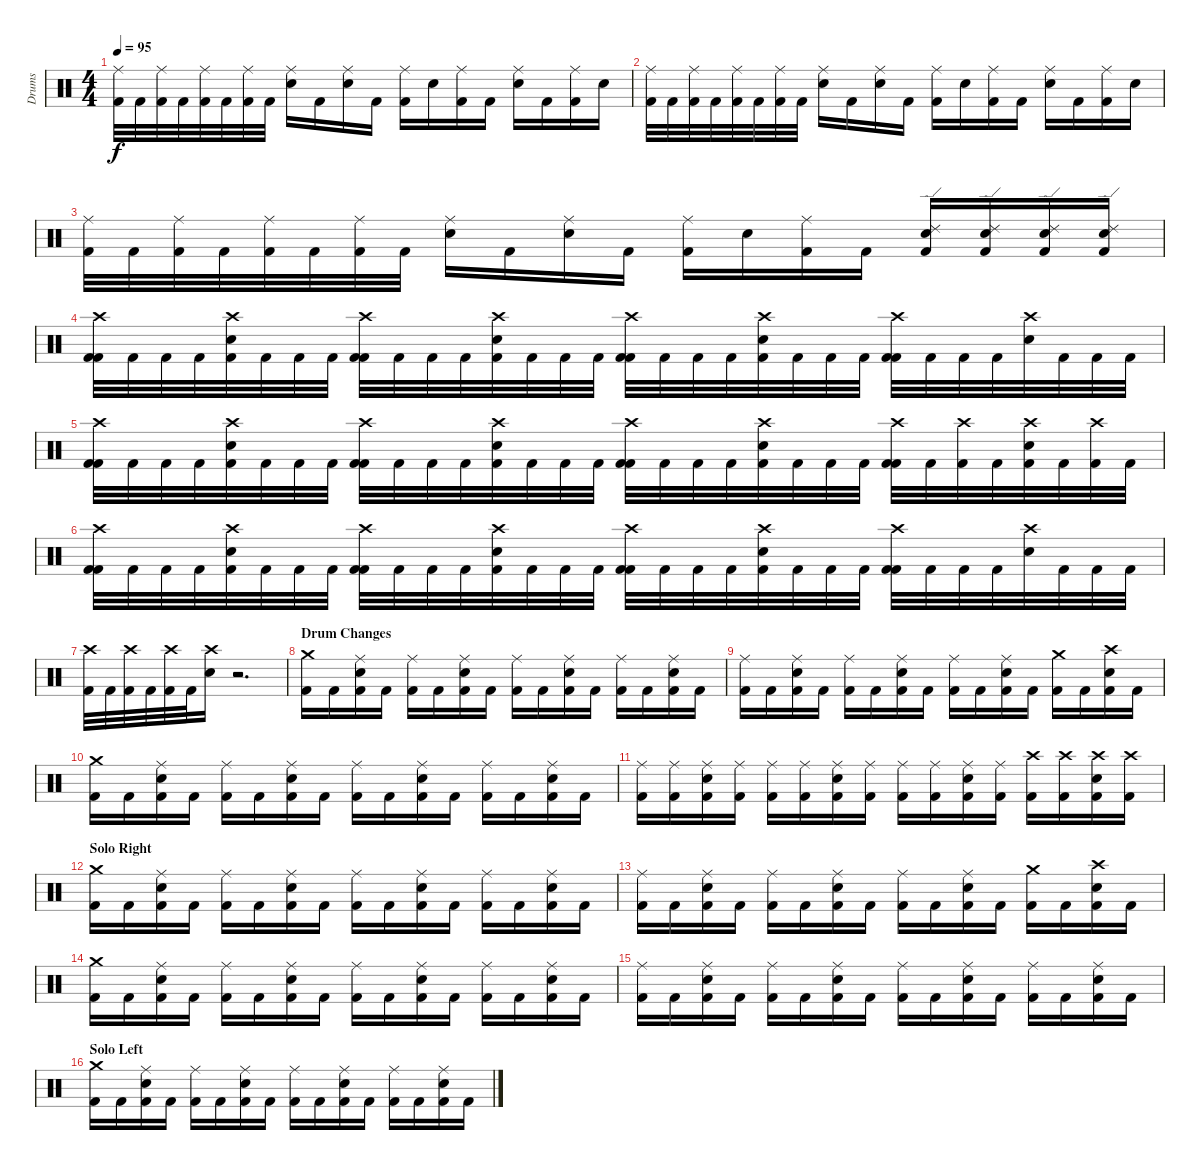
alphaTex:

\track ("Drums" "Drums") {instrument percussion}
\staff {score}
\articulation defaults
\ts (4 4)
\tempo 95
\clef neutral
\ks c
("Ride (middle)" "Kick (hit) 2").32{dy f balance 8} "Kick (hit) 2".32 ("Ride (middle)" "Kick (hit) 2").32 "Kick (hit) 2".32 ("Ride (middle)" "Kick (hit) 2").32 "Kick (hit) 2".32 ("Ride (middle)" "Kick (hit) 2").32 "Kick (hit) 2".32 ("Ride (middle)" "Electric Snare (hit)").16 "Kick (hit) 2".16 ("Ride (middle)" "Electric Snare (hit)").16 "Kick (hit) 2".16 ("Ride (middle)" "Kick (hit) 2").16 "Electric Snare (hit)".16 ("Ride (middle)" "Kick (hit) 2").16 "Kick (hit) 2".16 ("Ride (middle)" "Electric Snare (hit)").16 "Kick (hit) 2".16 ("Ride (middle)" "Kick (hit) 2").16 "Electric Snare (hit)".16 |
("Ride (middle)" "Kick (hit) 2").32{balance 8} "Kick (hit) 2".32 ("Ride (middle)" "Kick (hit) 2").32 "Kick (hit) 2".32 ("Ride (middle)" "Kick (hit) 2").32 "Kick (hit) 2".32 ("Ride (middle)" "Kick (hit) 2").32 "Kick (hit) 2".32 ("Ride (middle)" "Electric Snare (hit)").16 "Kick (hit) 2".16 ("Ride (middle)" "Electric Snare (hit)").16 "Kick (hit) 2".16 ("Ride (middle)" "Kick (hit) 2").16 "Electric Snare (hit)".16 ("Ride (middle)" "Kick (hit) 2").16 "Kick (hit) 2".16 ("Ride (middle)" "Electric Snare (hit)").16 "Kick (hit) 2".16 ("Ride (middle)" "Kick (hit) 2").16 "Electric Snare (hit)".16 |
("Ride (middle)" "Kick (hit) 2").32{balance 8} "Kick (hit) 2".32 ("Ride (middle)" "Kick (hit) 2").32 "Kick (hit) 2".32 ("Ride (middle)" "Kick (hit) 2").32 "Kick (hit) 2".32 ("Ride (middle)" "Kick (hit) 2").32 "Kick (hit) 2".32 ("Ride (middle)" "Electric Snare (hit)").16 "Kick (hit) 2".16 ("Ride (middle)" "Electric Snare (hit)").16 "Kick (hit) 2".16 ("Ride (middle)" "Kick (hit) 2").16 "Electric Snare (hit)".16 ("Ride (middle)" "Kick (hit) 2").16 "Kick (hit) 2".16 ("Ride (edge) 2" "Electric Snare (hit)" "Kick (hit) 2").16 ("Ride (edge) 2" "Electric Snare (hit)" "Kick (hit) 2").16 ("Ride (edge) 2" "Electric Snare (hit)" "Kick (hit) 2").16 ("Ride (edge) 2" "Electric Snare (hit)" "Kick (hit) 2").16 |
("Crash high (hit)" "Kick (hit) 2" "Kick (hit) 2").32{balance 8} "Kick (hit) 2".32 "Kick (hit) 2".32 "Kick (hit) 2".32 ("Crash high (hit)" "Electric Snare (hit)" "Kick (hit) 2").32 "Kick (hit) 2".32 "Kick (hit) 2".32 "Kick (hit) 2".32 ("Crash high (hit)" "Kick (hit) 2" "Kick (hit) 2").32 "Kick (hit) 2".32 "Kick (hit) 2".32 "Kick (hit) 2".32 ("Crash high (hit)" "Electric Snare (hit)" "Kick (hit) 2").32 "Kick (hit) 2".32 "Kick (hit) 2".32 "Kick (hit) 2".32 ("Crash high (hit)" "Kick (hit) 2" "Kick (hit) 2").32 "Kick (hit) 2".32 "Kick (hit) 2".32 "Kick (hit) 2".32 ("Crash high (hit)" "Electric Snare (hit)" "Kick (hit) 2").32 "Kick (hit) 2".32 "Kick (hit) 2".32 "Kick (hit) 2".32 ("Crash high (hit)" "Kick (hit) 2" "Kick (hit) 2").32 "Kick (hit) 2".32 "Kick (hit) 2".32 "Kick (hit) 2".32 ("Crash high (hit)" "Electric Snare (hit)").32 "Kick (hit) 2".32 "Kick (hit) 2".32 "Kick (hit) 2".32 |
("Crash high (hit)" "Kick (hit) 2" "Kick (hit) 2").32{balance 8} "Kick (hit) 2".32 "Kick (hit) 2".32 "Kick (hit) 2".32 ("Crash high (hit)" "Electric Snare (hit)" "Kick (hit) 2").32 "Kick (hit) 2".32 "Kick (hit) 2".32 "Kick (hit) 2".32 ("Crash high (hit)" "Kick (hit) 2" "Kick (hit) 2").32 "Kick (hit) 2".32 "Kick (hit) 2".32 "Kick (hit) 2".32 ("Crash high (hit)" "Electric Snare (hit)" "Kick (hit) 2").32 "Kick (hit) 2".32 "Kick (hit) 2".32 "Kick (hit) 2".32 ("Crash high (hit)" "Kick (hit) 2" "Kick (hit) 2").32 "Kick (hit) 2".32 "Kick (hit) 2".32 "Kick (hit) 2".32 ("Crash high (hit)" "Electric Snare (hit)" "Kick (hit) 2").32 "Kick (hit) 2".32 "Kick (hit) 2".32 "Kick (hit) 2".32 ("Crash high (hit)" "Kick (hit) 2" "Kick (hit) 2").32 "Kick (hit) 2".32 ("Crash high (hit)" "Kick (hit) 2").32 "Kick (hit) 2".32 ("Crash high (hit)" "Electric Snare (hit)" "Kick (hit) 2").32 "Kick (hit) 2".32 ("Crash high (hit)" "Kick (hit) 2").32 "Kick (hit) 2".32 |
("Crash high (hit)" "Kick (hit) 2" "Kick (hit) 2").32{balance 8} "Kick (hit) 2".32 "Kick (hit) 2".32 "Kick (hit) 2".32 ("Crash high (hit)" "Electric Snare (hit)" "Kick (hit) 2").32 "Kick (hit) 2".32 "Kick (hit) 2".32 "Kick (hit) 2".32 ("Crash high (hit)" "Kick (hit) 2" "Kick (hit) 2").32 "Kick (hit) 2".32 "Kick (hit) 2".32 "Kick (hit) 2".32 ("Crash high (hit)" "Electric Snare (hit)" "Kick (hit) 2").32 "Kick (hit) 2".32 "Kick (hit) 2".32 "Kick (hit) 2".32 ("Crash high (hit)" "Kick (hit) 2" "Kick (hit) 2").32 "Kick (hit) 2".32 "Kick (hit) 2".32 "Kick (hit) 2".32 ("Crash high (hit)" "Electric Snare (hit)" "Kick (hit) 2").32 "Kick (hit) 2".32 "Kick (hit) 2".32 "Kick (hit) 2".32 ("Crash high (hit)" "Kick (hit) 2" "Kick (hit) 2").32 "Kick (hit) 2".32 "Kick (hit) 2".32 "Kick (hit) 2".32 ("Crash high (hit)" "Electric Snare (hit)").32 "Kick (hit) 2".32 "Kick (hit) 2".32 "Kick (hit) 2".32 |
("Crash high (hit)" "Kick (hit) 2").32 "Kick (hit) 2".32 ("Crash high (hit)" "Kick (hit) 2").32 "Kick (hit) 2".32 ("Crash high (hit)" "Kick (hit) 2").32 "Kick (hit) 2".32 ("Crash high (hit)" "Electric Snare (hit)").16 r.2{d} |
\section ("" "Drum Changes")
("Crash medium (hit)" "Kick (hit) 2").16 "Kick (hit) 2".16 ("Ride (middle)" "Electric Snare (hit)" "Kick (hit) 2").16 "Kick (hit) 2".16 ("Ride (middle)" "Kick (hit) 2").16 "Kick (hit) 2".16 ("Ride (middle)" "Electric Snare (hit)" "Kick (hit) 2").16 "Kick (hit) 2".16 ("Ride (middle)" "Kick (hit) 2").16 "Kick (hit) 2".16 ("Ride (middle)" "Electric Snare (hit)" "Kick (hit) 2").16 "Kick (hit) 2".16 ("Ride (middle)" "Kick (hit) 2").16 "Kick (hit) 2".16 ("Ride (middle)" "Electric Snare (hit)" "Kick (hit) 2").16 "Kick (hit) 2".16 |
("Ride (middle)" "Kick (hit) 2").16 "Kick (hit) 2".16 ("Ride (middle)" "Electric Snare (hit)" "Kick (hit) 2").16 "Kick (hit) 2".16 ("Ride (middle)" "Kick (hit) 2").16 "Kick (hit) 2".16 ("Ride (middle)" "Electric Snare (hit)" "Kick (hit) 2").16 "Kick (hit) 2".16 ("Ride (middle)" "Kick (hit) 2").16 "Kick (hit) 2".16 ("Ride (middle)" "Electric Snare (hit)" "Kick (hit) 2").16 "Kick (hit) 2".16 ("Crash medium (hit)" "Kick (hit) 2").16 "Kick (hit) 2".16 ("Crash high (hit)" "Electric Snare (hit)" "Kick (hit) 2").16 "Kick (hit) 2".16 |
("Crash medium (hit)" "Kick (hit) 2").16{balance 8} "Kick (hit) 2".16 ("Ride (middle)" "Electric Snare (hit)" "Kick (hit) 2").16 "Kick (hit) 2".16 ("Ride (middle)" "Kick (hit) 2").16 "Kick (hit) 2".16 ("Ride (middle)" "Electric Snare (hit)" "Kick (hit) 2").16 "Kick (hit) 2".16 ("Ride (middle)" "Kick (hit) 2").16 "Kick (hit) 2".16 ("Ride (middle)" "Electric Snare (hit)" "Kick (hit) 2").16 "Kick (hit) 2".16 ("Ride (middle)" "Kick (hit) 2").16 "Kick (hit) 2".16 ("Ride (middle)" "Electric Snare (hit)" "Kick (hit) 2").16 "Kick (hit) 2".16 |
("Ride (middle)" "Kick (hit) 2").16{balance 8} ("Ride (middle)" "Kick (hit) 2").16 ("Ride (middle)" "Electric Snare (hit)" "Kick (hit) 2").16 ("Ride (middle)" "Kick (hit) 2").16 ("Ride (middle)" "Kick (hit) 2").16 ("Ride (middle)" "Kick (hit) 2").16 ("Ride (middle)" "Electric Snare (hit)" "Kick (hit) 2").16 ("Ride (middle)" "Kick (hit) 2").16 ("Ride (middle)" "Kick (hit) 2").16 ("Ride (middle)" "Kick (hit) 2").16 ("Ride (middle)" "Electric Snare (hit)" "Kick (hit) 2").16 ("Ride (middle)" "Kick (hit) 2").16 ("Crash high (hit)" "Kick (hit) 2").16 ("Crash high (hit)" "Kick (hit) 2").16 ("Crash high (hit)" "Electric Snare (hit)" "Kick (hit) 2").16 ("Crash high (hit)" "Kick (hit) 2").16 |
\section ("" "Solo Right")
("Crash medium (hit)" "Kick (hit) 2").16 "Kick (hit) 2".16 ("Ride (middle)" "Electric Snare (hit)" "Kick (hit) 2").16 "Kick (hit) 2".16 ("Ride (middle)" "Kick (hit) 2").16 "Kick (hit) 2".16 ("Ride (middle)" "Electric Snare (hit)" "Kick (hit) 2").16 "Kick (hit) 2".16 ("Ride (middle)" "Kick (hit) 2").16 "Kick (hit) 2".16 ("Ride (middle)" "Electric Snare (hit)" "Kick (hit) 2").16 "Kick (hit) 2".16 ("Ride (middle)" "Kick (hit) 2").16 "Kick (hit) 2".16 ("Ride (middle)" "Electric Snare (hit)" "Kick (hit) 2").16 "Kick (hit) 2".16 |
("Ride (middle)" "Kick (hit) 2").16 "Kick (hit) 2".16 ("Ride (middle)" "Electric Snare (hit)" "Kick (hit) 2").16 "Kick (hit) 2".16 ("Ride (middle)" "Kick (hit) 2").16 "Kick (hit) 2".16 ("Ride (middle)" "Electric Snare (hit)" "Kick (hit) 2").16 "Kick (hit) 2".16 ("Ride (middle)" "Kick (hit) 2").16 "Kick (hit) 2".16 ("Ride (middle)" "Electric Snare (hit)" "Kick (hit) 2").16 "Kick (hit) 2".16 ("Crash medium (hit)" "Kick (hit) 2").16 "Kick (hit) 2".16 ("Crash high (hit)" "Electric Snare (hit)" "Kick (hit) 2").16 "Kick (hit) 2".16 |
("Crash medium (hit)" "Kick (hit) 2").16{balance 8} "Kick (hit) 2".16 ("Ride (middle)" "Electric Snare (hit)" "Kick (hit) 2").16 "Kick (hit) 2".16 ("Ride (middle)" "Kick (hit) 2").16 "Kick (hit) 2".16 ("Ride (middle)" "Electric Snare (hit)" "Kick (hit) 2").16 "Kick (hit) 2".16 ("Ride (middle)" "Kick (hit) 2").16 "Kick (hit) 2".16 ("Ride (middle)" "Electric Snare (hit)" "Kick (hit) 2").16 "Kick (hit) 2".16 ("Ride (middle)" "Kick (hit) 2").16 "Kick (hit) 2".16 ("Ride (middle)" "Electric Snare (hit)" "Kick (hit) 2").16 "Kick (hit) 2".16 |
("Ride (middle)" "Kick (hit) 2").16{balance 8} "Kick (hit) 2".16 ("Ride (middle)" "Electric Snare (hit)" "Kick (hit) 2").16 "Kick (hit) 2".16 ("Ride (middle)" "Kick (hit) 2").16 "Kick (hit) 2".16 ("Ride (middle)" "Electric Snare (hit)" "Kick (hit) 2").16 "Kick (hit) 2".16 ("Ride (middle)" "Kick (hit) 2").16 "Kick (hit) 2".16 ("Ride (middle)" "Electric Snare (hit)" "Kick (hit) 2").16 "Kick (hit) 2".16 ("Ride (middle)" "Kick (hit) 2").16 "Kick (hit) 2".16 ("Ride (middle)" "Electric Snare (hit)" "Kick (hit) 2").16 "Kick (hit) 2".16 |
\section ("" "Solo Left")
("Crash medium (hit)" "Kick (hit) 2").16 "Kick (hit) 2".16 ("Ride (middle)" "Electric Snare (hit)" "Kick (hit) 2").16 "Kick (hit) 2".16 ("Ride (middle)" "Kick (hit) 2").16 "Kick (hit) 2".16 ("Ride (middle)" "Electric Snare (hit)" "Kick (hit) 2").16 "Kick (hit) 2".16 ("Ride (middle)" "Kick (hit) 2").16 "Kick (hit) 2".16 ("Ride (middle)" "Electric Snare (hit)" "Kick (hit) 2").16 "Kick (hit) 2".16 ("Ride (middle)" "Kick (hit) 2").16 "Kick (hit) 2".16 ("Ride (middle)" "Electric Snare (hit)" "Kick (hit) 2").16 "Kick (hit) 2".16
